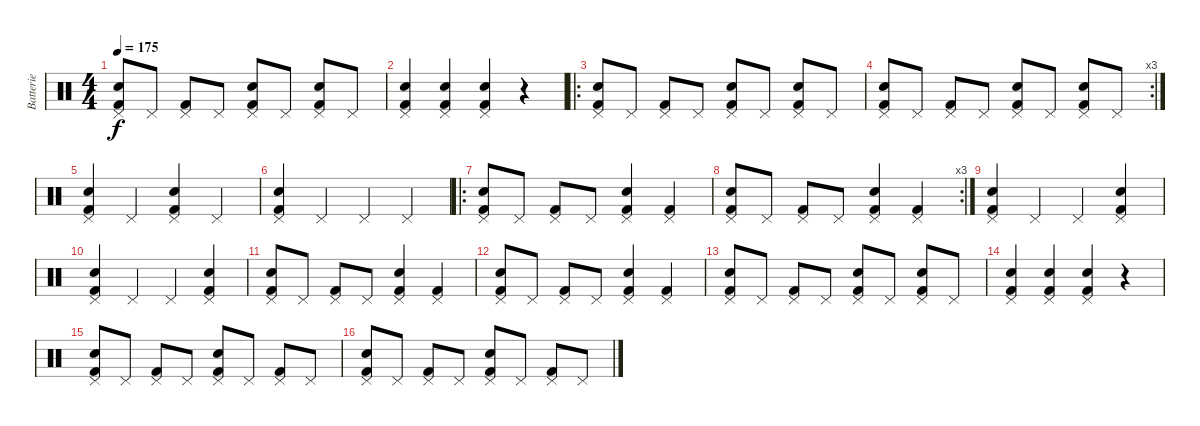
\track ("Batterie" "Batterie") {instrument percussion}
\staff {score}
\articulation defaults
\ts (4 4)
\tempo 175
\clef neutral
\ks c
("Pedal Hi-Hat (hit)" "Electric Snare (hit)" "Kick (hit) 2").8{dy f} "Pedal Hi-Hat (hit)".8 ("Pedal Hi-Hat (hit)" "Kick (hit) 2").8 "Pedal Hi-Hat (hit)".8 ("Pedal Hi-Hat (hit)" "Electric Snare (hit)" "Kick (hit) 2").8 "Pedal Hi-Hat (hit)".8 ("Pedal Hi-Hat (hit)" "Electric Snare (hit)" "Kick (hit) 2").8 "Pedal Hi-Hat (hit)".8 |
("Pedal Hi-Hat (hit)" "Electric Snare (hit)" "Kick (hit) 2").4 ("Pedal Hi-Hat (hit)" "Electric Snare (hit)" "Kick (hit) 2").4 ("Pedal Hi-Hat (hit)" "Electric Snare (hit)" "Kick (hit) 2").4 r.4 |
\ro
("Pedal Hi-Hat (hit)" "Electric Snare (hit)" "Kick (hit) 2").8 "Pedal Hi-Hat (hit)".8 ("Pedal Hi-Hat (hit)" "Kick (hit) 2").8 "Pedal Hi-Hat (hit)".8 ("Pedal Hi-Hat (hit)" "Electric Snare (hit)" "Kick (hit) 2").8 "Pedal Hi-Hat (hit)".8 ("Pedal Hi-Hat (hit)" "Electric Snare (hit)" "Kick (hit) 2").8 "Pedal Hi-Hat (hit)".8 |
\rc 3
("Pedal Hi-Hat (hit)" "Electric Snare (hit)" "Kick (hit) 2").8 "Pedal Hi-Hat (hit)".8 ("Pedal Hi-Hat (hit)" "Kick (hit) 2").8 "Pedal Hi-Hat (hit)".8 ("Pedal Hi-Hat (hit)" "Electric Snare (hit)" "Kick (hit) 2").8 "Pedal Hi-Hat (hit)".8 ("Pedal Hi-Hat (hit)" "Electric Snare (hit)" "Kick (hit) 2").8 "Pedal Hi-Hat (hit)".8 |
("Pedal Hi-Hat (hit)" "Electric Snare (hit)" "Kick (hit) 2").4 "Pedal Hi-Hat (hit)".4 ("Pedal Hi-Hat (hit)" "Electric Snare (hit)" "Kick (hit) 2").4 "Pedal Hi-Hat (hit)".4 |
("Pedal Hi-Hat (hit)" "Electric Snare (hit)" "Kick (hit) 2").4 "Pedal Hi-Hat (hit)".4 "Pedal Hi-Hat (hit)".4 "Pedal Hi-Hat (hit)".4 |
\ro
("Pedal Hi-Hat (hit)" "Electric Snare (hit)" "Kick (hit) 2").8 "Pedal Hi-Hat (hit)".8 ("Pedal Hi-Hat (hit)" "Kick (hit) 2").8 "Pedal Hi-Hat (hit)".8 ("Pedal Hi-Hat (hit)" "Electric Snare (hit)" "Kick (hit) 2").4 ("Pedal Hi-Hat (hit)" "Kick (hit) 2").4 |
\rc 3
("Pedal Hi-Hat (hit)" "Electric Snare (hit)" "Kick (hit) 2").8 "Pedal Hi-Hat (hit)".8 ("Pedal Hi-Hat (hit)" "Kick (hit) 2").8 "Pedal Hi-Hat (hit)".8 ("Pedal Hi-Hat (hit)" "Electric Snare (hit)" "Kick (hit) 2").4 ("Pedal Hi-Hat (hit)" "Kick (hit) 2").4 |
("Pedal Hi-Hat (hit)" "Electric Snare (hit)" "Kick (hit) 2").4 "Pedal Hi-Hat (hit)".4 "Pedal Hi-Hat (hit)".4 ("Pedal Hi-Hat (hit)" "Electric Snare (hit)" "Kick (hit) 2").4 |
("Pedal Hi-Hat (hit)" "Electric Snare (hit)" "Kick (hit) 2").4 "Pedal Hi-Hat (hit)".4 "Pedal Hi-Hat (hit)".4 ("Pedal Hi-Hat (hit)" "Electric Snare (hit)" "Kick (hit) 2").4 |
("Pedal Hi-Hat (hit)" "Electric Snare (hit)" "Kick (hit) 2").8 "Pedal Hi-Hat (hit)".8 ("Pedal Hi-Hat (hit)" "Kick (hit) 2").8 "Pedal Hi-Hat (hit)".8 ("Pedal Hi-Hat (hit)" "Electric Snare (hit)" "Kick (hit) 2").4 ("Pedal Hi-Hat (hit)" "Kick (hit) 2").4 |
("Pedal Hi-Hat (hit)" "Electric Snare (hit)" "Kick (hit) 2").8 "Pedal Hi-Hat (hit)".8 ("Pedal Hi-Hat (hit)" "Kick (hit) 2").8 "Pedal Hi-Hat (hit)".8 ("Pedal Hi-Hat (hit)" "Electric Snare (hit)" "Kick (hit) 2").4 ("Pedal Hi-Hat (hit)" "Kick (hit) 2").4 |
("Pedal Hi-Hat (hit)" "Electric Snare (hit)" "Kick (hit) 2").8 "Pedal Hi-Hat (hit)".8 ("Pedal Hi-Hat (hit)" "Kick (hit) 2").8 "Pedal Hi-Hat (hit)".8 ("Pedal Hi-Hat (hit)" "Electric Snare (hit)" "Kick (hit) 2").8 "Pedal Hi-Hat (hit)".8 ("Pedal Hi-Hat (hit)" "Electric Snare (hit)" "Kick (hit) 2").8 "Pedal Hi-Hat (hit)".8 |
("Pedal Hi-Hat (hit)" "Electric Snare (hit)" "Kick (hit) 2").4 ("Pedal Hi-Hat (hit)" "Electric Snare (hit)" "Kick (hit) 2").4 ("Pedal Hi-Hat (hit)" "Electric Snare (hit)" "Kick (hit) 2").4 r.4 |
("Pedal Hi-Hat (hit)" "Electric Snare (hit)" "Kick (hit) 2").8 "Pedal Hi-Hat (hit)".8 ("Pedal Hi-Hat (hit)" "Kick (hit) 2").8 "Pedal Hi-Hat (hit)".8 ("Pedal Hi-Hat (hit)" "Electric Snare (hit)" "Kick (hit) 2").8 "Pedal Hi-Hat (hit)".8 ("Pedal Hi-Hat (hit)" "Kick (hit) 2").8 "Pedal Hi-Hat (hit)".8 |
("Pedal Hi-Hat (hit)" "Electric Snare (hit)" "Kick (hit) 2").8 "Pedal Hi-Hat (hit)".8 ("Pedal Hi-Hat (hit)" "Kick (hit) 2").8 "Pedal Hi-Hat (hit)".8 ("Pedal Hi-Hat (hit)" "Electric Snare (hit)" "Kick (hit) 2").8 "Pedal Hi-Hat (hit)".8 ("Pedal Hi-Hat (hit)" "Kick (hit) 2").8 "Pedal Hi-Hat (hit)".8
